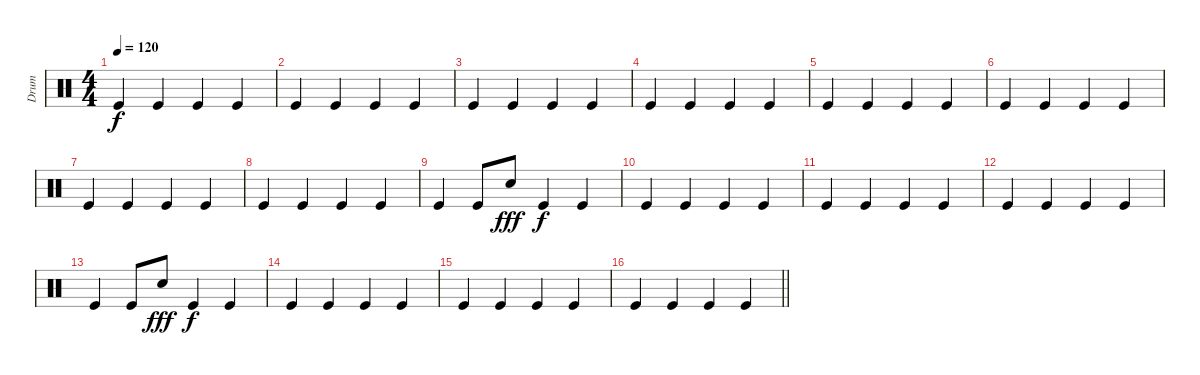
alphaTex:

\track ("Drum" "Drum") {instrument percussion}
\staff {score}
\articulation defaults
\ts (4 4)
\tempo 120
\clef neutral
\ks c "Kick (hit)".4{dy f} "Kick (hit)".4 "Kick (hit)".4 "Kick (hit)".4
|
"Kick (hit)".4 "Kick (hit)".4 "Kick (hit)".4 "Kick (hit)".4 |
"Kick (hit)".4 "Kick (hit)".4 "Kick (hit)".4 "Kick (hit)".4 |
"Kick (hit)".4 "Kick (hit)".4 "Kick (hit)".4 "Kick (hit)".4 |
"Kick (hit)".4 "Kick (hit)".4 "Kick (hit)".4 "Kick (hit)".4 |
"Kick (hit)".4 "Kick (hit)".4 "Kick (hit)".4 "Kick (hit)".4 |
"Kick (hit)".4 "Kick (hit)".4 "Kick (hit)".4 "Kick (hit)".4 |
"Kick (hit)".4 "Kick (hit)".4 "Kick (hit)".4 "Kick (hit)".4 |
"Kick (hit)".4 "Kick (hit)".8 "Electric Snare (hit)".8{dy fff} "Kick (hit)".4{dy f} "Kick (hit)".4 |
"Kick (hit)".4 "Kick (hit)".4 "Kick (hit)".4 "Kick (hit)".4 |
"Kick (hit)".4 "Kick (hit)".4 "Kick (hit)".4 "Kick (hit)".4 |
"Kick (hit)".4 "Kick (hit)".4 "Kick (hit)".4 "Kick (hit)".4 |
"Kick (hit)".4 "Kick (hit)".8 "Electric Snare (hit)".8{dy fff} "Kick (hit)".4{dy f} "Kick (hit)".4 |
"Kick (hit)".4 "Kick (hit)".4 "Kick (hit)".4 "Kick (hit)".4 |
"Kick (hit)".4 "Kick (hit)".4 "Kick (hit)".4 "Kick (hit)".4 |
\barLineRight lightlight "Kick (hit)".4 "Kick (hit)".4 "Kick (hit)".4 "Kick (hit)".4
